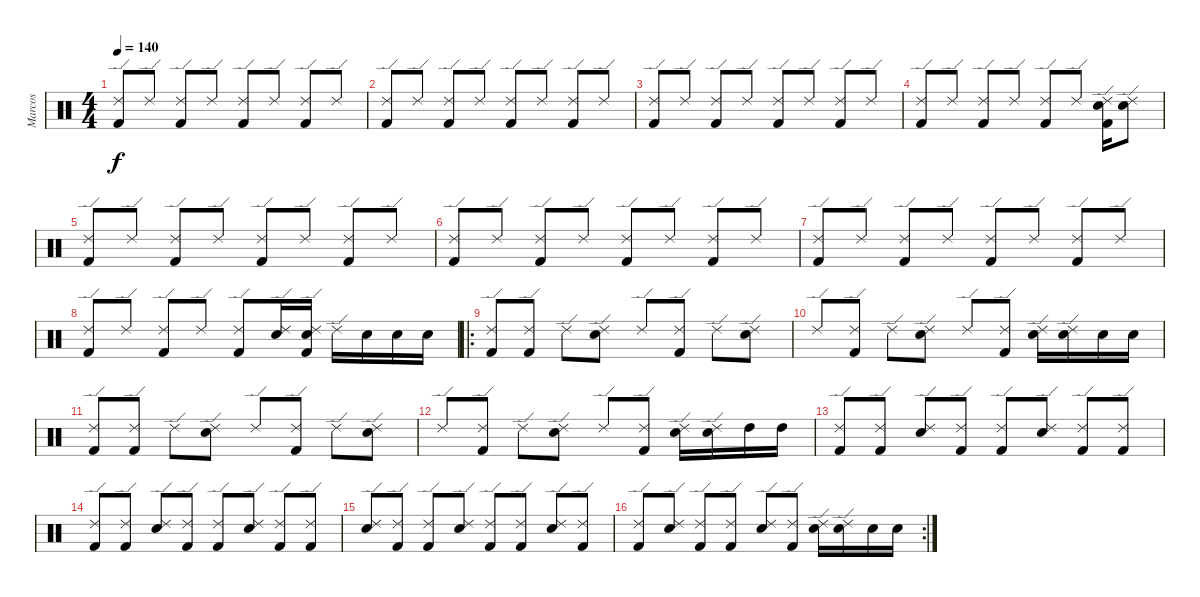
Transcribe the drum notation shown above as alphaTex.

\track ("Marcos" "Marcos") {instrument percussion}
\staff {score}
\articulation defaults
\ts (4 4)
\tempo 140
\clef neutral
\ks c
("Ride (edge) 2" "Kick (hit) 2").8{dy f} "Ride (edge) 2".8 ("Ride (edge) 2" "Kick (hit) 2").8 "Ride (edge) 2".8 ("Ride (edge) 2" "Kick (hit) 2").8 "Ride (edge) 2".8 ("Ride (edge) 2" "Kick (hit) 2").8 "Ride (edge) 2".8 |
("Ride (edge) 2" "Kick (hit) 2").8 "Ride (edge) 2".8 ("Ride (edge) 2" "Kick (hit) 2").8 "Ride (edge) 2".8 ("Ride (edge) 2" "Kick (hit) 2").8 "Ride (edge) 2".8 ("Ride (edge) 2" "Kick (hit) 2").8 "Ride (edge) 2".8 |
("Ride (edge) 2" "Kick (hit) 2").8 "Ride (edge) 2".8 ("Ride (edge) 2" "Kick (hit) 2").8 "Ride (edge) 2".8 ("Ride (edge) 2" "Kick (hit) 2").8 "Ride (edge) 2".8 ("Ride (edge) 2" "Kick (hit) 2").8 "Ride (edge) 2".8 |
("Ride (edge) 2" "Kick (hit) 2").8 "Ride (edge) 2".8 ("Ride (edge) 2" "Kick (hit) 2").8 "Ride (edge) 2".8 ("Ride (edge) 2" "Kick (hit) 2").8 "Ride (edge) 2".8 ("Ride (edge) 2" "Kick (hit) 2" "Electric Snare (hit)").16 ("Ride (edge) 2" "Electric Snare (hit)").8 |
("Ride (edge) 2" "Kick (hit) 2").8 "Ride (edge) 2".8 ("Ride (edge) 2" "Kick (hit) 2").8 "Ride (edge) 2".8 ("Ride (edge) 2" "Kick (hit) 2").8 "Ride (edge) 2".8 ("Ride (edge) 2" "Kick (hit) 2").8 "Ride (edge) 2".8 |
("Ride (edge) 2" "Kick (hit) 2").8 "Ride (edge) 2".8 ("Ride (edge) 2" "Kick (hit) 2").8 "Ride (edge) 2".8 ("Ride (edge) 2" "Kick (hit) 2").8 "Ride (edge) 2".8 ("Ride (edge) 2" "Kick (hit) 2").8 "Ride (edge) 2".8 |
("Ride (edge) 2" "Kick (hit) 2").8 "Ride (edge) 2".8 ("Ride (edge) 2" "Kick (hit) 2").8 "Ride (edge) 2".8 ("Ride (edge) 2" "Kick (hit) 2").8 "Ride (edge) 2".8 ("Ride (edge) 2" "Kick (hit) 2").8 "Ride (edge) 2".8 |
("Ride (edge) 2" "Kick (hit) 2").8 "Ride (edge) 2".8 ("Ride (edge) 2" "Kick (hit) 2").8 "Ride (edge) 2".8 ("Ride (edge) 2" "Kick (hit) 2").8 ("Ride (edge) 2" "Electric Snare (hit)").16 ("Ride (edge) 2" "Kick (hit) 2" "Electric Snare (hit)").16 "Ride (edge) 2".16 "Electric Snare (hit)".16 "Electric Snare (hit)".16 "Electric Snare (hit)".16 |
\ro
("Ride (edge) 2" "Kick (hit) 2").8 ("Ride (edge) 2" "Kick (hit) 2").8 "Ride (edge) 2".8 ("Ride (edge) 2" "Electric Snare (hit)").8 "Ride (edge) 2".8 ("Ride (edge) 2" "Kick (hit) 2").8 "Ride (edge) 2".8 ("Ride (edge) 2" "Electric Snare (hit)").8 |
"Ride (edge) 2".8 ("Ride (edge) 2" "Kick (hit) 2").8 "Ride (edge) 2".8 ("Ride (edge) 2" "Electric Snare (hit)").8 "Ride (edge) 2".8 ("Ride (edge) 2" "Kick (hit) 2").8 ("Ride (edge) 2" "Electric Snare (hit)").16 ("Ride (edge) 2" "Electric Snare (hit)").16 "Electric Snare (hit)".16 "Electric Snare (hit)".16 |
("Ride (edge) 2" "Kick (hit) 2").8 ("Ride (edge) 2" "Kick (hit) 2").8 "Ride (edge) 2".8 ("Ride (edge) 2" "Electric Snare (hit)").8 "Ride (edge) 2".8 ("Ride (edge) 2" "Kick (hit) 2").8 "Ride (edge) 2".8 ("Ride (edge) 2" "Electric Snare (hit)").8 |
"Ride (edge) 2".8 ("Ride (edge) 2" "Kick (hit) 2").8 "Ride (edge) 2".8 ("Ride (edge) 2" "Electric Snare (hit)").8 "Ride (edge) 2".8 ("Ride (edge) 2" "Kick (hit) 2").8 ("Ride (edge) 2" "Electric Snare (hit)").16 ("Ride (edge) 2" "Electric Snare (hit)").16 "High Tom (hit)".16 "High Tom (hit)".16 |
("Ride (edge) 2" "Kick (hit) 2").8 ("Ride (edge) 2" "Kick (hit) 2").8 ("Ride (edge) 2" "Electric Snare (hit)").8 ("Ride (edge) 2" "Kick (hit) 2").8 ("Ride (edge) 2" "Kick (hit) 2").8 ("Ride (edge) 2" "Electric Snare (hit)").8 ("Ride (edge) 2" "Kick (hit) 2").8 ("Ride (edge) 2" "Kick (hit) 2").8 |
("Ride (edge) 2" "Kick (hit) 2").8 ("Ride (edge) 2" "Kick (hit) 2").8 ("Ride (edge) 2" "Electric Snare (hit)").8 ("Ride (edge) 2" "Kick (hit) 2").8 ("Ride (edge) 2" "Kick (hit) 2").8 ("Ride (edge) 2" "Electric Snare (hit)").8 ("Ride (edge) 2" "Kick (hit) 2").8 ("Ride (edge) 2" "Kick (hit) 2").8 |
("Ride (edge) 2" "Electric Snare (hit)").8 ("Ride (edge) 2" "Kick (hit) 2").8 ("Ride (edge) 2" "Kick (hit) 2").8 ("Ride (edge) 2" "Electric Snare (hit)").8 ("Ride (edge) 2" "Kick (hit) 2").8 ("Ride (edge) 2" "Kick (hit) 2").8 ("Ride (edge) 2" "Electric Snare (hit)").8 ("Ride (edge) 2" "Kick (hit) 2").8 |
\rc 2
("Ride (edge) 2" "Kick (hit) 2").8 ("Ride (edge) 2" "Electric Snare (hit)").8 ("Ride (edge) 2" "Kick (hit) 2").8 ("Ride (edge) 2" "Kick (hit) 2").8 ("Ride (edge) 2" "Electric Snare (hit)").8 ("Ride (edge) 2" "Kick (hit) 2").8 ("Ride (edge) 2" "Electric Snare (hit)").16 ("Ride (edge) 2" "Electric Snare (hit)").16 "Electric Snare (hit)".16 "Electric Snare (hit)".16
